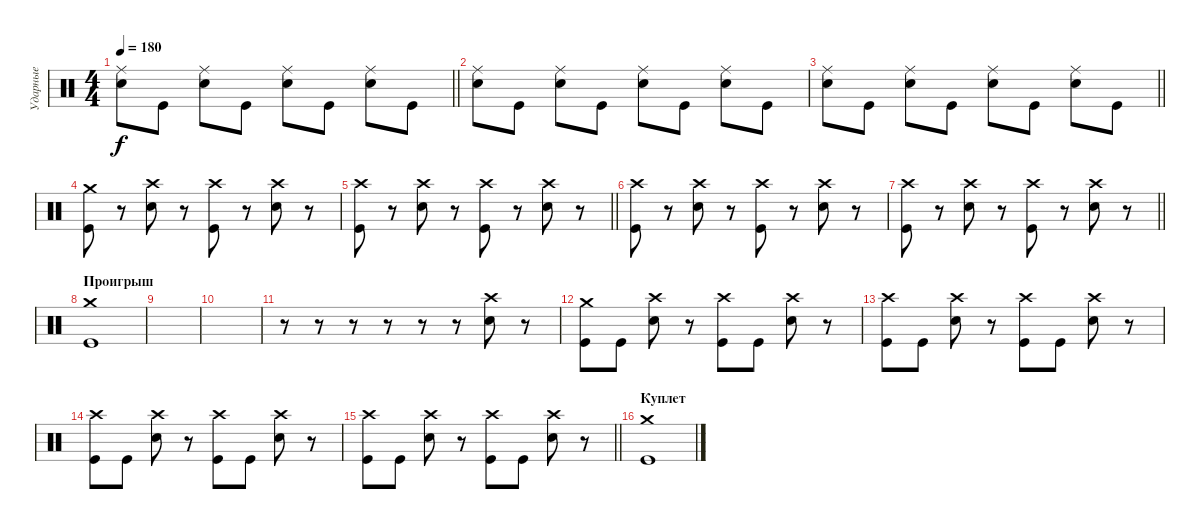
\track ("Ударные" "Ударные") {instrument percussion}
\staff {score}
\articulation defaults
\ts (4 4)
\tempo 180
\clef neutral
\barLineRight lightlight
\ks c
("Ride (middle)" "Electric Snare (hit)").8{dy f} "Kick (hit)".8 ("Ride (middle)" "Electric Snare (hit)").8 "Kick (hit)".8 ("Ride (middle)" "Electric Snare (hit)").8 "Kick (hit)".8 ("Ride (middle)" "Electric Snare (hit)").8 "Kick (hit)".8 |
("Ride (middle)" "Electric Snare (hit)").8 "Kick (hit)".8 ("Ride (middle)" "Electric Snare (hit)").8 "Kick (hit)".8 ("Ride (middle)" "Electric Snare (hit)").8 "Kick (hit)".8 ("Ride (middle)" "Electric Snare (hit)").8 "Kick (hit)".8 |
\barLineRight lightlight
("Ride (middle)" "Electric Snare (hit)").8 "Kick (hit)".8 ("Ride (middle)" "Electric Snare (hit)").8 "Kick (hit)".8 ("Ride (middle)" "Electric Snare (hit)").8 "Kick (hit)".8 ("Ride (middle)" "Electric Snare (hit)").8 "Kick (hit)".8 |
("Crash medium (hit)" "Kick (hit)").8 r.8 ("Crash high (hit)" "Electric Snare (hit)").8 r.8 ("Crash high (hit)" "Kick (hit)").8 r.8 ("Crash high (hit)" "Electric Snare (hit)").8 r.8 |
\barLineRight lightlight
("Crash high (hit)" "Kick (hit)").8 r.8 ("Crash high (hit)" "Electric Snare (hit)").8 r.8 ("Crash high (hit)" "Kick (hit)").8 r.8 ("Crash high (hit)" "Electric Snare (hit)").8 r.8 |
("Crash high (hit)" "Kick (hit)").8 r.8 ("Crash high (hit)" "Electric Snare (hit)").8 r.8 ("Crash high (hit)" "Kick (hit)").8 r.8 ("Crash high (hit)" "Electric Snare (hit)").8 r.8 |
\barLineRight lightlight
("Crash high (hit)" "Kick (hit)").8 r.8 ("Crash high (hit)" "Electric Snare (hit)").8 r.8 ("Crash high (hit)" "Kick (hit)").8 r.8 ("Crash high (hit)" "Electric Snare (hit)").8 r.8 |
\section ("" "Проигрыш")
("Crash medium (hit)" "Kick (hit)").1 |
|
|
r.8 r.8 r.8 r.8 r.8 r.8 ("Crash high (hit)" "Electric Snare (hit)").8 r.8 |
("Crash medium (hit)" "Kick (hit)").8 "Kick (hit)".8 ("Crash high (hit)" "Electric Snare (hit)").8 r.8 ("Crash high (hit)" "Kick (hit)").8 "Kick (hit)".8 ("Crash high (hit)" "Electric Snare (hit)").8 r.8 |
("Crash high (hit)" "Kick (hit)").8 "Kick (hit)".8 ("Crash high (hit)" "Electric Snare (hit)").8 r.8 ("Crash high (hit)" "Kick (hit)").8 "Kick (hit)".8 ("Crash high (hit)" "Electric Snare (hit)").8 r.8 |
("Crash high (hit)" "Kick (hit)").8 "Kick (hit)".8 ("Crash high (hit)" "Electric Snare (hit)").8 r.8 ("Crash high (hit)" "Kick (hit)").8 "Kick (hit)".8 ("Crash high (hit)" "Electric Snare (hit)").8 r.8 |
\barLineRight lightlight
("Crash high (hit)" "Kick (hit)").8 "Kick (hit)".8 ("Crash high (hit)" "Electric Snare (hit)").8 r.8 ("Crash high (hit)" "Kick (hit)").8 "Kick (hit)".8 ("Crash high (hit)" "Electric Snare (hit)").8 r.8 |
\section ("" "Куплет")
("Crash medium (hit)" "Kick (hit)").1
